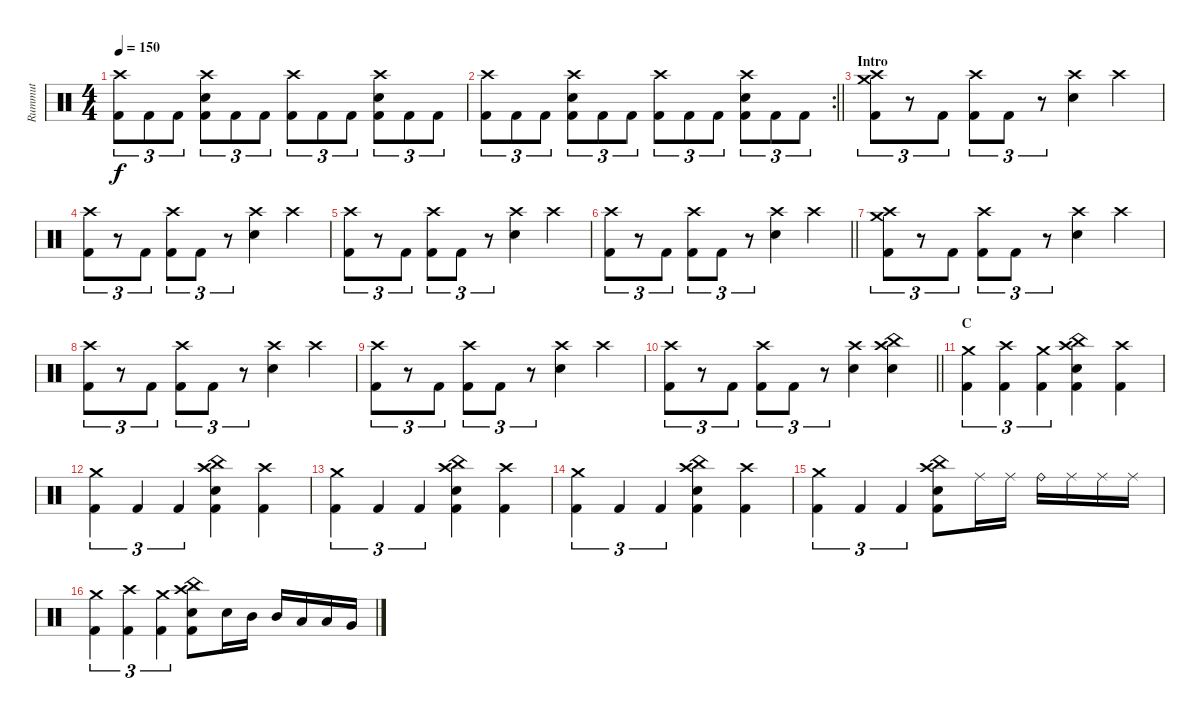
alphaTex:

\track ("Rummut" "Rummut") {mute instrument percussion}
\staff {score}
\articulation defaults
\ts (4 4)
\tempo 150
\clef neutral
\ks c
("Crash high (hit)" "Kick (hit) 2").8{tu (3 2) dy f} "Kick (hit) 2".8{tu (3 2)} "Kick (hit) 2".8{tu (3 2)} ("Crash high (hit)" "Electric Snare (hit)" "Kick (hit) 2").8{tu (3 2)} "Kick (hit) 2".8{tu (3 2)} "Kick (hit) 2".8{tu (3 2)} ("Crash high (hit)" "Kick (hit) 2").8{tu (3 2)} "Kick (hit) 2".8{tu (3 2)} "Kick (hit) 2".8{tu (3 2)} ("Crash high (hit)" "Electric Snare (hit)" "Kick (hit) 2").8{tu (3 2)} "Kick (hit) 2".8{tu (3 2)} "Kick (hit) 2".8{tu (3 2)} |
\rc 2
\barLineRight lightlight
("Crash high (hit)" "Kick (hit) 2").8{tu (3 2)} "Kick (hit) 2".8{tu (3 2)} "Kick (hit) 2".8{tu (3 2)} ("Crash high (hit)" "Electric Snare (hit)" "Kick (hit) 2").8{tu (3 2)} "Kick (hit) 2".8{tu (3 2)} "Kick (hit) 2".8{tu (3 2)} ("Crash high (hit)" "Kick (hit) 2").8{tu (3 2)} "Kick (hit) 2".8{tu (3 2)} "Kick (hit) 2".8{tu (3 2)} ("Crash high (hit)" "Electric Snare (hit)" "Kick (hit) 2").8{tu (3 2)} "Kick (hit) 2".8{tu (3 2)} "Kick (hit) 2".8{tu (3 2)} |
\section ("" "Intro")
("Crash medium (hit)" "Crash high (hit)" "Kick (hit) 2").8{tu (3 2)} r.8{tu (3 2)} "Kick (hit) 2".8{tu (3 2)} ("Crash high (hit)" "Kick (hit) 2").8{tu (3 2)} "Kick (hit) 2".8{tu (3 2)} r.8{tu (3 2)} ("Crash high (hit)" "Electric Snare (hit)").4 "Crash high (hit)".4 |
("Crash high (hit)" "Kick (hit) 2").8{tu (3 2)} r.8{tu (3 2)} "Kick (hit) 2".8{tu (3 2)} ("Crash high (hit)" "Kick (hit) 2").8{tu (3 2)} "Kick (hit) 2".8{tu (3 2)} r.8{tu (3 2)} ("Crash high (hit)" "Electric Snare (hit)").4 "Crash high (hit)".4 |
("Crash high (hit)" "Kick (hit) 2").8{tu (3 2)} r.8{tu (3 2)} "Kick (hit) 2".8{tu (3 2)} ("Crash high (hit)" "Kick (hit) 2").8{tu (3 2)} "Kick (hit) 2".8{tu (3 2)} r.8{tu (3 2)} ("Crash high (hit)" "Electric Snare (hit)").4 "Crash high (hit)".4 |
\barLineRight lightlight
("Crash high (hit)" "Kick (hit) 2").8{tu (3 2)} r.8{tu (3 2)} "Kick (hit) 2".8{tu (3 2)} ("Crash high (hit)" "Kick (hit) 2").8{tu (3 2)} "Kick (hit) 2".8{tu (3 2)} r.8{tu (3 2)} ("Crash high (hit)" "Electric Snare (hit)").4 "Crash high (hit)".4 |
("Crash medium (hit)" "Crash high (hit)" "Kick (hit) 2").8{tu (3 2)} r.8{tu (3 2)} "Kick (hit) 2".8{tu (3 2)} ("Crash high (hit)" "Kick (hit) 2").8{tu (3 2)} "Kick (hit) 2".8{tu (3 2)} r.8{tu (3 2)} ("Crash high (hit)" "Electric Snare (hit)").4 "Crash high (hit)".4 |
("Crash high (hit)" "Kick (hit) 2").8{tu (3 2)} r.8{tu (3 2)} "Kick (hit) 2".8{tu (3 2)} ("Crash high (hit)" "Kick (hit) 2").8{tu (3 2)} "Kick (hit) 2".8{tu (3 2)} r.8{tu (3 2)} ("Crash high (hit)" "Electric Snare (hit)").4 "Crash high (hit)".4 |
("Crash high (hit)" "Kick (hit) 2").8{tu (3 2)} r.8{tu (3 2)} "Kick (hit) 2".8{tu (3 2)} ("Crash high (hit)" "Kick (hit) 2").8{tu (3 2)} "Kick (hit) 2".8{tu (3 2)} r.8{tu (3 2)} ("Crash high (hit)" "Electric Snare (hit)").4 "Crash high (hit)".4 |
\barLineRight lightlight
("Crash high (hit)" "Kick (hit) 2").8{tu (3 2)} r.8{tu (3 2)} "Kick (hit) 2".8{tu (3 2)} ("Crash high (hit)" "Kick (hit) 2").8{tu (3 2)} "Kick (hit) 2".8{tu (3 2)} r.8{tu (3 2)} ("Crash high (hit)" "Electric Snare (hit)").4 ("China (hit)" "Crash high (hit)" "Electric Snare (hit)").4 |
\section ("" "C")
("Crash medium (hit)" "Kick (hit) 2").4{tu (3 2)} ("Crash high (hit)" "Kick (hit) 2").4{tu (3 2)} ("Crash medium (hit)" "Kick (hit) 2").4{tu (3 2)} ("China (hit)" "Crash high (hit)" "Electric Snare (hit)" "Kick (hit) 2").4 ("Crash high (hit)" "Kick (hit) 2").4 |
("Crash medium (hit)" "Kick (hit) 2").4{tu (3 2)} "Kick (hit) 2".4{tu (3 2)} "Kick (hit) 2".4{tu (3 2)} ("China (hit)" "Crash high (hit)" "Electric Snare (hit)" "Kick (hit) 2").4 ("Crash high (hit)" "Kick (hit) 2").4 |
("Crash medium (hit)" "Kick (hit) 2").4{tu (3 2)} "Kick (hit) 2".4{tu (3 2)} "Kick (hit) 2".4{tu (3 2)} ("China (hit)" "Crash high (hit)" "Electric Snare (hit)" "Kick (hit) 2").4 ("Crash high (hit)" "Kick (hit) 2").4 |
("Crash medium (hit)" "Kick (hit) 2").4{tu (3 2)} "Kick (hit) 2".4{tu (3 2)} "Kick (hit) 2".4{tu (3 2)} ("China (hit)" "Crash high (hit)" "Electric Snare (hit)" "Kick (hit) 2").4 ("Crash high (hit)" "Kick (hit) 2").4 |
("Crash medium (hit)" "Kick (hit) 2").4{tu (3 2)} "Kick (hit) 2".4{tu (3 2)} "Kick (hit) 2".4{tu (3 2)} ("China (hit)" "Crash high (hit)" "Electric Snare (hit)" "Kick (hit) 2").8 "Ride (middle)".16 "Ride (middle)".16 "Ride (bell)".16 "Ride (middle)".16 "Ride (middle)".16 "Ride (middle)".16 |
("Crash medium (hit)" "Kick (hit) 2").4{tu (3 2)} ("Crash high (hit)" "Kick (hit) 2").4{tu (3 2)} ("Crash medium (hit)" "Kick (hit) 2").4{tu (3 2)} ("China (hit)" "Crash high (hit)" "Electric Snare (hit)" "Kick (hit) 2").8 "Electric Snare (hit)".16 "Mid Tom (hit)".16 "Mid Tom (hit)".16 "Low Tom (hit)".16 "Low Tom (hit)".16 "Very Low Tom (hit)".16
